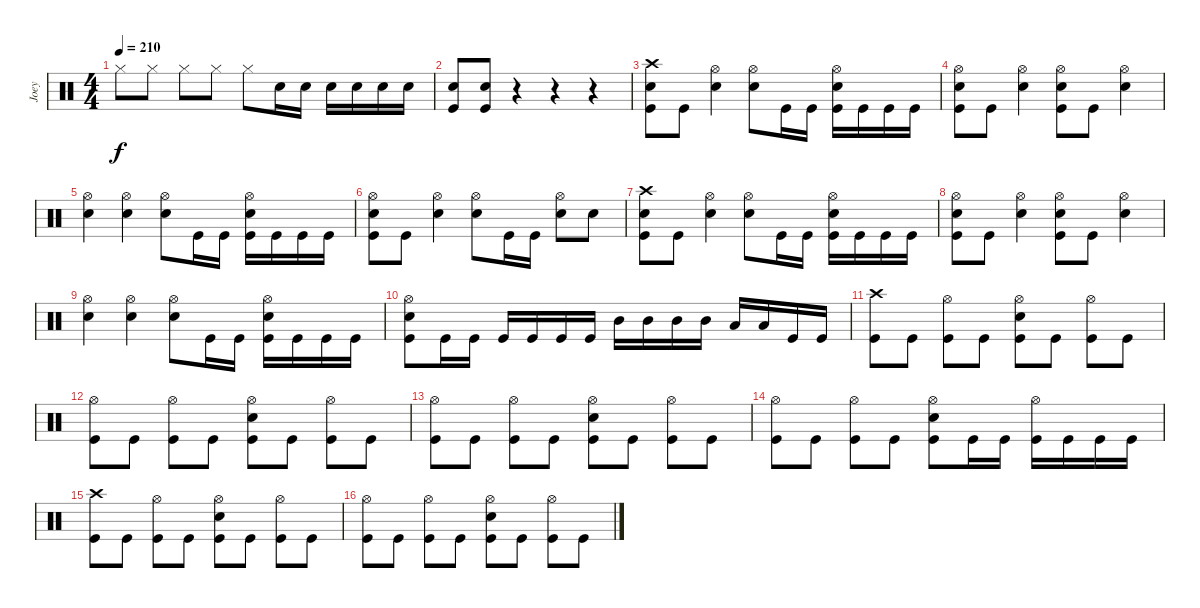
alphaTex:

\track ("Joey" "Joey") {instrument percussion}
\staff {score}
\articulation defaults
\ts (4 4)
\tempo 210
\clef neutral
\ks c "Hi-Hat (closed)".8{dy f} "Hi-Hat (closed)".8 "Hi-Hat (closed)".8 "Hi-Hat (closed)".8 "Hi-Hat (closed)".8 "Snare (hit) 2".16 "Snare (hit) 2".16 "Snare (hit) 2".16 "Snare (hit) 2".16 "Snare (hit) 2".16 "Snare (hit) 2".16
|
("Snare (hit) 2" "Kick (hit)").8 ("Kick (hit)" "Snare (hit) 2").8 r.4 r.4 r.4 |
("Crash high (hit)" "Kick (hit)" "Snare (hit) 2").8 "Kick (hit)".8 ("Hi-Hat (open)" "Snare (hit) 2").4 ("Hi-Hat (open)" "Snare (hit) 2").8 "Kick (hit)".16 "Kick (hit)".16 ("Kick (hit)" "Hi-Hat (open)" "Snare (hit) 2").16 "Kick (hit)".16 "Kick (hit)".16 "Kick (hit)".16 |
("Kick (hit)" "Hi-Hat (open)" "Snare (hit) 2").8 "Kick (hit)".8 ("Hi-Hat (open)" "Snare (hit) 2").4 ("Hi-Hat (open)" "Snare (hit) 2" "Kick (hit)").8 "Kick (hit)".8 ("Hi-Hat (open)" "Snare (hit) 2").4 |
("Hi-Hat (open)" "Snare (hit) 2").4 ("Snare (hit) 2" "Hi-Hat (open)").4 ("Snare (hit) 2" "Hi-Hat (open)").8 "Kick (hit)".16 "Kick (hit)".16 ("Kick (hit)" "Hi-Hat (open)" "Snare (hit) 2").16 "Kick (hit)".16 "Kick (hit)".16 "Kick (hit)".16 |
("Kick (hit)" "Hi-Hat (open)" "Snare (hit) 2").8 "Kick (hit)".8 ("Hi-Hat (open)" "Snare (hit) 2").4 ("Snare (hit) 2" "Hi-Hat (open)").8 "Kick (hit)".16 "Kick (hit)".16 ("Snare (hit) 2" "Hi-Hat (open)").8 "Snare (hit) 2".8 |
("Crash high (hit)" "Kick (hit)" "Snare (hit) 2").8 "Kick (hit)".8 ("Hi-Hat (open)" "Snare (hit) 2").4 ("Hi-Hat (open)" "Snare (hit) 2").8 "Kick (hit)".16 "Kick (hit)".16 ("Kick (hit)" "Hi-Hat (open)" "Snare (hit) 2").16 "Kick (hit)".16 "Kick (hit)".16 "Kick (hit)".16 |
("Kick (hit)" "Hi-Hat (open)" "Snare (hit) 2").8 "Kick (hit)".8 ("Hi-Hat (open)" "Snare (hit) 2").4 ("Hi-Hat (open)" "Snare (hit) 2" "Kick (hit)").8 "Kick (hit)".8 ("Hi-Hat (open)" "Snare (hit) 2").4 |
("Hi-Hat (open)" "Snare (hit) 2").4 ("Snare (hit) 2" "Hi-Hat (open)").4 ("Snare (hit) 2" "Hi-Hat (open)").8 "Kick (hit)".16 "Kick (hit)".16 ("Kick (hit)" "Hi-Hat (open)" "Snare (hit) 2").16 "Kick (hit)".16 "Kick (hit)".16 "Kick (hit)".16 |
("Kick (hit)" "Hi-Hat (open)" "Snare (hit) 2").8 "Kick (hit)".16 "Kick (hit)".16 "Kick (hit)".16 "Kick (hit)".16 "Kick (hit)".16 "Kick (hit)".16 "Mid Tom (hit)".16 "Mid Tom (hit)".16 "Mid Tom (hit)".16 "Mid Tom (hit)".16 "Low Tom (hit)".16 "Low Tom (hit)".16 "Kick (hit)".16 "Kick (hit)".16 |
("Crash high (hit)" "Kick (hit)").8 "Kick (hit)".8 ("Kick (hit)" "Hi-Hat (open)").8 "Kick (hit)".8 ("Snare (hit) 2" "Hi-Hat (open)" "Kick (hit)").8 "Kick (hit)".8 ("Kick (hit)" "Hi-Hat (open)").8 "Kick (hit)".8 |
("Hi-Hat (open)" "Kick (hit)").8 "Kick (hit)".8 ("Kick (hit)" "Hi-Hat (open)").8 "Kick (hit)".8 ("Snare (hit) 2" "Hi-Hat (open)" "Kick (hit)").8 "Kick (hit)".8 ("Kick (hit)" "Hi-Hat (open)").8 "Kick (hit)".8 |
("Hi-Hat (open)" "Kick (hit)").8 "Kick (hit)".8 ("Kick (hit)" "Hi-Hat (open)").8 "Kick (hit)".8 ("Snare (hit) 2" "Hi-Hat (open)" "Kick (hit)").8 "Kick (hit)".8 ("Kick (hit)" "Hi-Hat (open)").8 "Kick (hit)".8 |
("Kick (hit)" "Hi-Hat (open)").8 "Kick (hit)".8 ("Hi-Hat (open)" "Kick (hit)").8 "Kick (hit)".8 ("Snare (hit) 2" "Hi-Hat (open)" "Kick (hit)").8 "Kick (hit)".16 "Kick (hit)".16 ("Hi-Hat (open)" "Kick (hit)").16 "Kick (hit)".16 "Kick (hit)".16 "Kick (hit)".16 |
("Crash high (hit)" "Kick (hit)").8 "Kick (hit)".8 ("Kick (hit)" "Hi-Hat (open)").8 "Kick (hit)".8 ("Snare (hit) 2" "Hi-Hat (open)" "Kick (hit)").8 "Kick (hit)".8 ("Kick (hit)" "Hi-Hat (open)").8 "Kick (hit)".8 |
("Hi-Hat (open)" "Kick (hit)").8 "Kick (hit)".8 ("Kick (hit)" "Hi-Hat (open)").8 "Kick (hit)".8 ("Snare (hit) 2" "Hi-Hat (open)" "Kick (hit)").8 "Kick (hit)".8 ("Kick (hit)" "Hi-Hat (open)").8 "Kick (hit)".8
